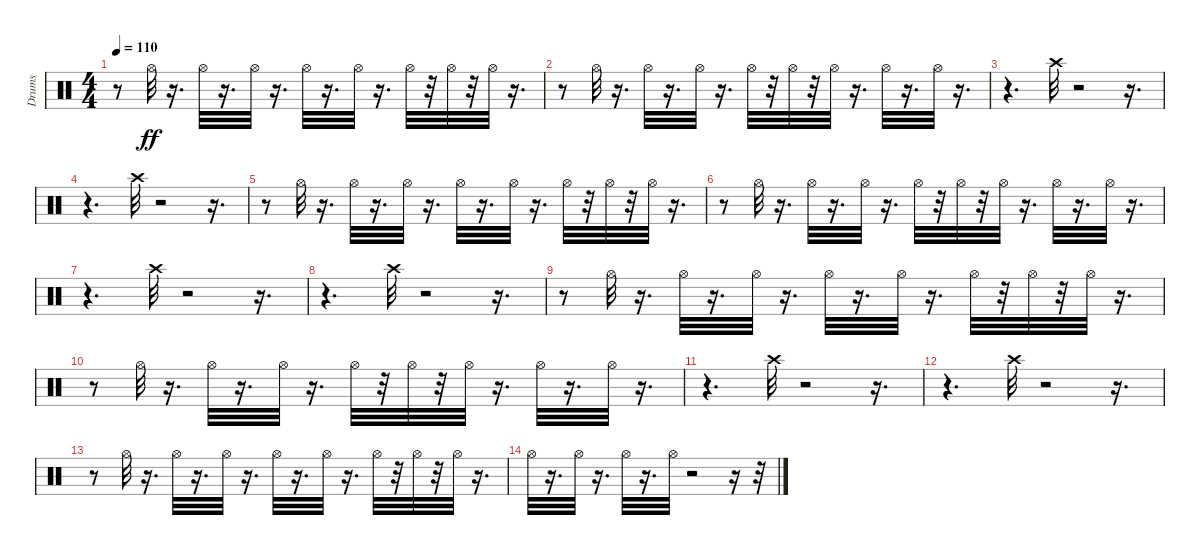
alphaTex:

\track ("Drums" "Drums") {instrument percussion}
\staff {score}
\articulation defaults
\ts (4 4)
\tempo 110
\clef neutral
\ks c
r.8{dy ff} "Hi-Hat (open)".32 r.16{d} "Hi-Hat (open)".32 r.16{d} "Hi-Hat (open)".32 r.16{d} "Hi-Hat (open)".32 r.16{d} "Hi-Hat (open)".32 r.16{d} "Hi-Hat (open)".32 r.32 "Hi-Hat (open)".32 r.32 "Hi-Hat (open)".32 r.16{d} |
r.8 "Hi-Hat (open)".32 r.16{d} "Hi-Hat (open)".32 r.16{d} "Hi-Hat (open)".32 r.16{d} "Hi-Hat (open)".32 r.32 "Hi-Hat (open)".32 r.32 "Hi-Hat (open)".32 r.16{d} "Hi-Hat (open)".32 r.16{d} "Hi-Hat (open)".32 r.16{d} |
r.4{d} "Crash high (hit)".32 r.2 r.16{d} |
r.4{d} "Crash high (hit)".32 r.2 r.16{d} |
r.8 "Hi-Hat (open)".32 r.16{d} "Hi-Hat (open)".32 r.16{d} "Hi-Hat (open)".32 r.16{d} "Hi-Hat (open)".32 r.16{d} "Hi-Hat (open)".32 r.16{d} "Hi-Hat (open)".32 r.32 "Hi-Hat (open)".32 r.32 "Hi-Hat (open)".32 r.16{d} |
r.8 "Hi-Hat (open)".32 r.16{d} "Hi-Hat (open)".32 r.16{d} "Hi-Hat (open)".32 r.16{d} "Hi-Hat (open)".32 r.32 "Hi-Hat (open)".32 r.32 "Hi-Hat (open)".32 r.16{d} "Hi-Hat (open)".32 r.16{d} "Hi-Hat (open)".32 r.16{d} |
r.4{d} "Crash high (hit)".32 r.2 r.16{d} |
r.4{d} "Crash high (hit)".32 r.2 r.16{d} |
r.8 "Hi-Hat (open)".32 r.16{d} "Hi-Hat (open)".32 r.16{d} "Hi-Hat (open)".32 r.16{d} "Hi-Hat (open)".32 r.16{d} "Hi-Hat (open)".32 r.16{d} "Hi-Hat (open)".32 r.32 "Hi-Hat (open)".32 r.32 "Hi-Hat (open)".32 r.16{d} |
r.8 "Hi-Hat (open)".32 r.16{d} "Hi-Hat (open)".32 r.16{d} "Hi-Hat (open)".32 r.16{d} "Hi-Hat (open)".32 r.32 "Hi-Hat (open)".32 r.32 "Hi-Hat (open)".32 r.16{d} "Hi-Hat (open)".32 r.16{d} "Hi-Hat (open)".32 r.16{d} |
r.4{d} "Crash high (hit)".32 r.2 r.16{d} |
r.4{d} "Crash high (hit)".32 r.2 r.16{d} |
r.8 "Hi-Hat (open)".32 r.16{d} "Hi-Hat (open)".32 r.16{d} "Hi-Hat (open)".32 r.16{d} "Hi-Hat (open)".32 r.16{d} "Hi-Hat (open)".32 r.16{d} "Hi-Hat (open)".32 r.32 "Hi-Hat (open)".32 r.32 "Hi-Hat (open)".32 r.16{d} |
"Hi-Hat (open)".32 r.16{d} "Hi-Hat (open)".32 r.16{d} "Hi-Hat (open)".32 r.16{d} "Hi-Hat (open)".32 r.2 r.16 r.32
